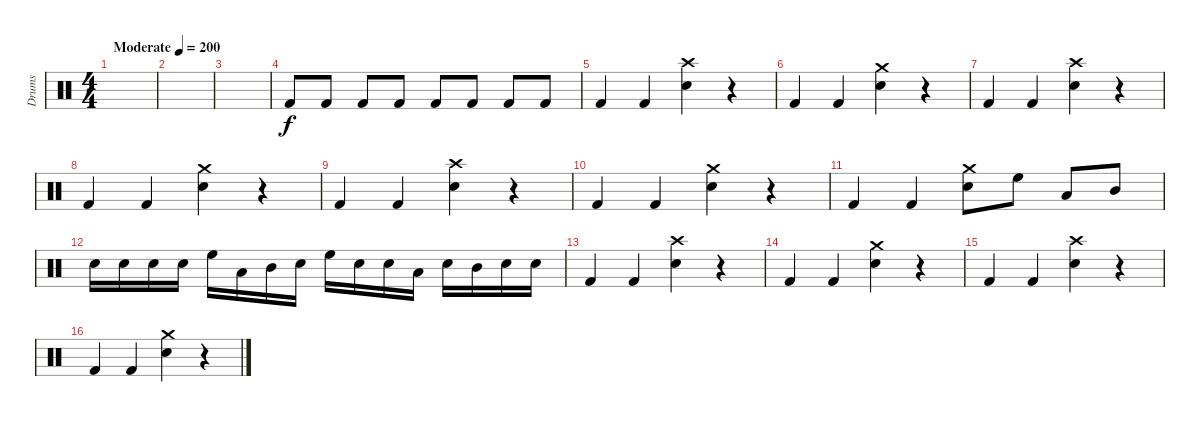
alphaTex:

\track ("Drums" "Drums") {instrument percussion}
\staff {score}
\articulation defaults
\ts (4 4)
\tempo (200 "Moderate")
\clef neutral
\ks c
|
|
|
"Kick (hit) 2".8 "Kick (hit) 2".8 "Kick (hit) 2".8 "Kick (hit) 2".8 "Kick (hit) 2".8 "Kick (hit) 2".8 "Kick (hit) 2".8 "Kick (hit) 2".8 |
"Kick (hit) 2".4 "Kick (hit) 2".4 ("Electric Snare (hit)" "Crash high (hit)").4 r.4 |
"Kick (hit) 2".4 "Kick (hit) 2".4 ("Electric Snare (hit)" "Crash medium (hit)").4 r.4 |
"Kick (hit) 2".4 "Kick (hit) 2".4 ("Electric Snare (hit)" "Crash high (hit)").4 r.4 |
"Kick (hit) 2".4 "Kick (hit) 2".4 ("Electric Snare (hit)" "Crash medium (hit)").4 r.4 |
"Kick (hit) 2".4 "Kick (hit) 2".4 ("Electric Snare (hit)" "Crash high (hit)").4 r.4 |
"Kick (hit) 2".4 "Kick (hit) 2".4 ("Electric Snare (hit)" "Crash medium (hit)").4 r.4 |
"Kick (hit) 2".4 "Kick (hit) 2".4 ("Electric Snare (hit)" "Crash medium (hit)").8 "High Floor Tom (hit)".8 "Low Tom (hit)".8 "Mid Tom (hit)".8 |
"Electric Snare (hit)".16 "Electric Snare (hit)".16 "Electric Snare (hit)".16 "Electric Snare (hit)".16 "High Floor Tom (hit)".16 "Low Tom (hit)".16 "Mid Tom (hit)".16 "Electric Snare (hit)".16 "High Floor Tom (hit)".16 "Electric Snare (hit)".16 "Electric Snare (hit)".16 "Low Tom (hit)".16 "Electric Snare (hit)".16 "Mid Tom (hit)".16 "Electric Snare (hit)".16 "Electric Snare (hit)".16 |
"Kick (hit) 2".4 "Kick (hit) 2".4 ("Electric Snare (hit)" "Crash high (hit)").4 r.4 |
"Kick (hit) 2".4 "Kick (hit) 2".4 ("Electric Snare (hit)" "Crash medium (hit)").4 r.4 |
"Kick (hit) 2".4 "Kick (hit) 2".4 ("Electric Snare (hit)" "Crash high (hit)").4 r.4 |
"Kick (hit) 2".4 "Kick (hit) 2".4 ("Electric Snare (hit)" "Crash medium (hit)").4 r.4
